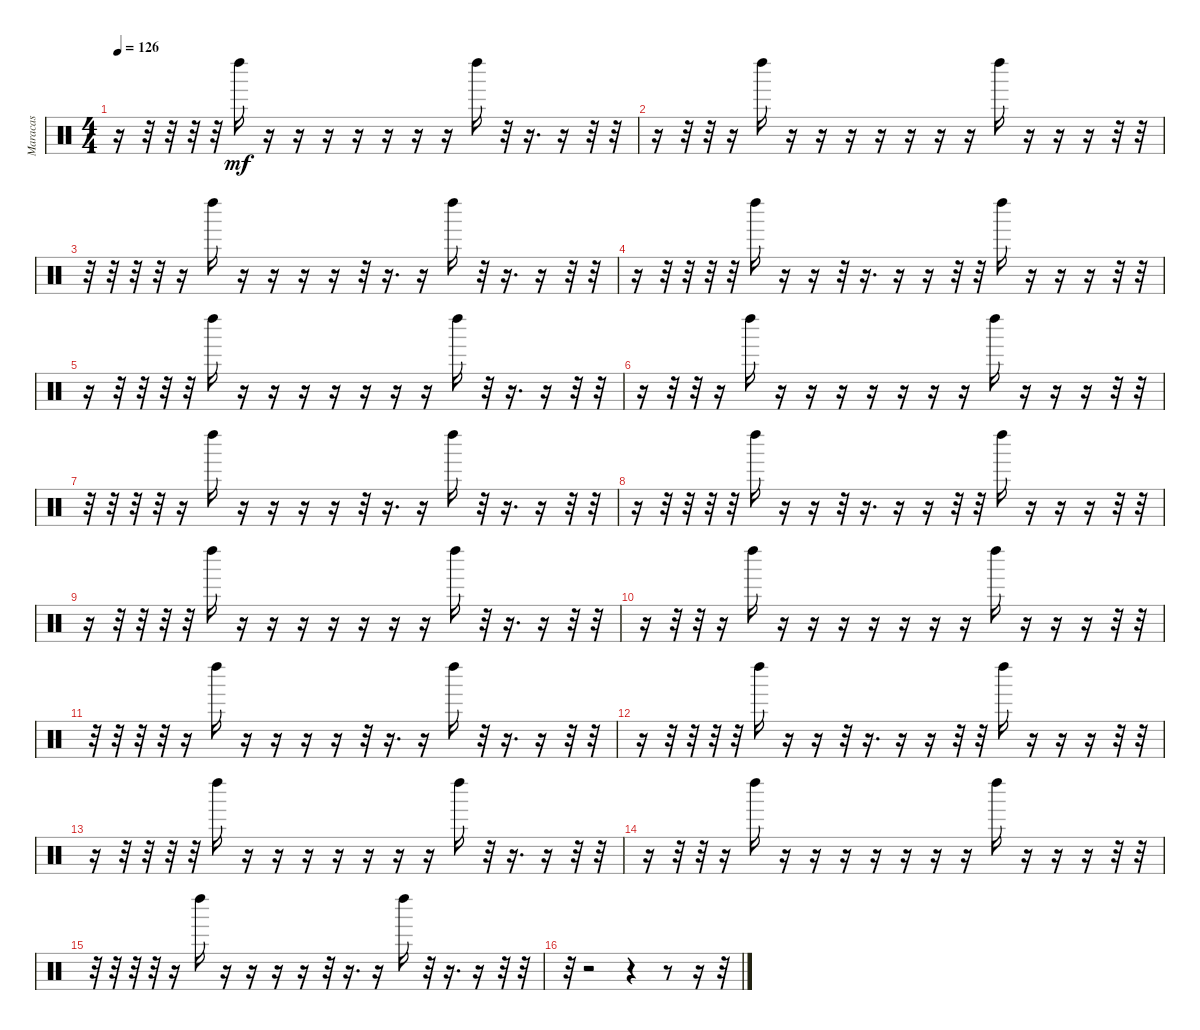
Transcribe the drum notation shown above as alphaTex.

\track ("Maracas" "Maracas") {instrument percussion}
\staff {score}
\articulation defaults
\ts (4 4)
\tempo 126
\clef neutral
\ks c
r.16{dy mf} r.32 r.32 r.32 r.32 "Left Maraca (hit)".16 r.16 r.16 r.16 r.16 r.16 r.16 r.16 "Left Maraca (hit)".16 r.32 r.16{d} r.16 r.32 r.32 |
r.16 r.32 r.32 r.16 "Left Maraca (hit)".16 r.16 r.16 r.16 r.16 r.16 r.16 r.16 "Left Maraca (hit)".16 r.16 r.16 r.16 r.32 r.32 |
r.32 r.32 r.32 r.32 r.16 "Left Maraca (hit)".16 r.16 r.16 r.16 r.16 r.32 r.16{d} r.16 "Left Maraca (hit)".16 r.32 r.16{d} r.16 r.32 r.32 |
r.16 r.32 r.32 r.32 r.32 "Left Maraca (hit)".16 r.16 r.16 r.32 r.16{d} r.16 r.16 r.32 r.32 "Left Maraca (hit)".16 r.16 r.16 r.16 r.32 r.32 |
r.16 r.32 r.32 r.32 r.32 "Left Maraca (hit)".16 r.16 r.16 r.16 r.16 r.16 r.16 r.16 "Left Maraca (hit)".16 r.32 r.16{d} r.16 r.32 r.32 |
r.16 r.32 r.32 r.16 "Left Maraca (hit)".16 r.16 r.16 r.16 r.16 r.16 r.16 r.16 "Left Maraca (hit)".16 r.16 r.16 r.16 r.32 r.32 |
r.32 r.32 r.32 r.32 r.16 "Left Maraca (hit)".16 r.16 r.16 r.16 r.16 r.32 r.16{d} r.16 "Left Maraca (hit)".16 r.32 r.16{d} r.16 r.32 r.32 |
r.16 r.32 r.32 r.32 r.32 "Left Maraca (hit)".16 r.16 r.16 r.32 r.16{d} r.16 r.16 r.32 r.32 "Left Maraca (hit)".16 r.16 r.16 r.16 r.32 r.32 |
r.16 r.32 r.32 r.32 r.32 "Left Maraca (hit)".16 r.16 r.16 r.16 r.16 r.16 r.16 r.16 "Left Maraca (hit)".16 r.32 r.16{d} r.16 r.32 r.32 |
r.16 r.32 r.32 r.16 "Left Maraca (hit)".16 r.16 r.16 r.16 r.16 r.16 r.16 r.16 "Left Maraca (hit)".16 r.16 r.16 r.16 r.32 r.32 |
r.32 r.32 r.32 r.32 r.16 "Left Maraca (hit)".16 r.16 r.16 r.16 r.16 r.32 r.16{d} r.16 "Left Maraca (hit)".16 r.32 r.16{d} r.16 r.32 r.32 |
r.16 r.32 r.32 r.32 r.32 "Left Maraca (hit)".16 r.16 r.16 r.32 r.16{d} r.16 r.16 r.32 r.32 "Left Maraca (hit)".16 r.16 r.16 r.16 r.32 r.32 |
r.16 r.32 r.32 r.32 r.32 "Left Maraca (hit)".16 r.16 r.16 r.16 r.16 r.16 r.16 r.16 "Left Maraca (hit)".16 r.32 r.16{d} r.16 r.32 r.32 |
r.16 r.32 r.32 r.16 "Left Maraca (hit)".16 r.16 r.16 r.16 r.16 r.16 r.16 r.16 "Left Maraca (hit)".16 r.16 r.16 r.16 r.32 r.32 |
r.32 r.32 r.32 r.32 r.16 "Left Maraca (hit)".16 r.16 r.16 r.16 r.16 r.32 r.16{d} r.16 "Left Maraca (hit)".16 r.32 r.16{d} r.16 r.32 r.32 |
r.32 r.2 r.4 r.8 r.16 r.32
